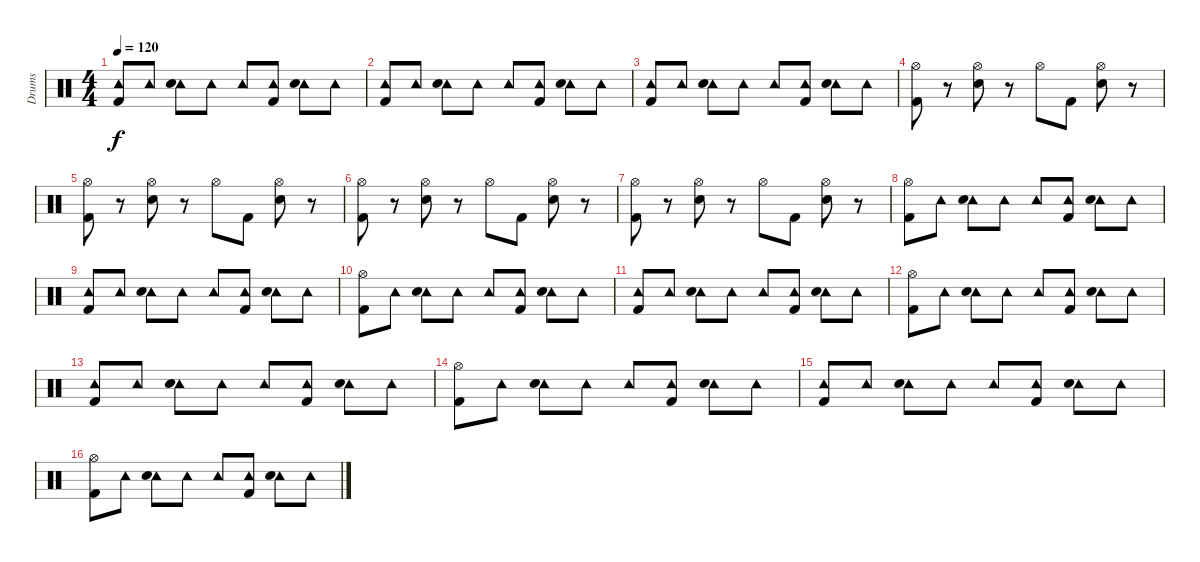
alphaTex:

\track ("Drums" "Drums") {instrument percussion}
\staff {score}
\articulation defaults
\ts (4 4)
\tempo 120
\clef neutral
\ks c
("Tambourine (hit)" "Kick (hit) 2").8{dy f} "Tambourine (hit)".8 ("Tambourine (hit)" "Hand Clap (hit)").8 "Tambourine (hit)".8 "Tambourine (hit)".8 ("Tambourine (hit)" "Kick (hit) 2").8 ("Tambourine (hit)" "Hand Clap (hit)").8 "Tambourine (hit)".8 |
("Tambourine (hit)" "Kick (hit) 2").8 "Tambourine (hit)".8 ("Tambourine (hit)" "Hand Clap (hit)").8 "Tambourine (hit)".8 "Tambourine (hit)".8 ("Tambourine (hit)" "Kick (hit) 2").8 ("Tambourine (hit)" "Hand Clap (hit)").8 "Tambourine (hit)".8 |
("Tambourine (hit)" "Kick (hit) 2").8 "Tambourine (hit)".8 ("Tambourine (hit)" "Hand Clap (hit)").8 "Tambourine (hit)".8 "Tambourine (hit)".8 ("Tambourine (hit)" "Kick (hit) 2").8 ("Tambourine (hit)" "Hand Clap (hit)").8 "Tambourine (hit)".8 |
("Hi-Hat (open)" "Kick (hit) 2").8 r.8 ("Hi-Hat (open)" "Hand Clap (hit)").8 r.8 "Hi-Hat (open)".8 "Kick (hit) 2".8 ("Hi-Hat (open)" "Hand Clap (hit)").8 r.8 |
("Hi-Hat (open)" "Kick (hit) 2").8 r.8 ("Hi-Hat (open)" "Hand Clap (hit)").8 r.8 "Hi-Hat (open)".8 "Kick (hit) 2".8 ("Hi-Hat (open)" "Hand Clap (hit)").8 r.8 |
("Hi-Hat (open)" "Kick (hit) 2").8 r.8 ("Hi-Hat (open)" "Hand Clap (hit)").8 r.8 "Hi-Hat (open)".8 "Kick (hit) 2".8 ("Hi-Hat (open)" "Hand Clap (hit)").8 r.8 |
("Hi-Hat (open)" "Kick (hit) 2").8 r.8 ("Hi-Hat (open)" "Hand Clap (hit)").8 r.8 "Hi-Hat (open)".8 "Kick (hit) 2".8 ("Hi-Hat (open)" "Hand Clap (hit)").8 r.8 |
("Hi-Hat (open)" "Kick (hit) 2").8 "Tambourine (hit)".8 ("Tambourine (hit)" "Hand Clap (hit)").8 "Tambourine (hit)".8 "Tambourine (hit)".8 ("Tambourine (hit)" "Kick (hit) 2").8 ("Tambourine (hit)" "Hand Clap (hit)").8 "Tambourine (hit)".8 |
("Tambourine (hit)" "Kick (hit) 2").8 "Tambourine (hit)".8 ("Tambourine (hit)" "Hand Clap (hit)").8 "Tambourine (hit)".8 "Tambourine (hit)".8 ("Tambourine (hit)" "Kick (hit) 2").8 ("Tambourine (hit)" "Hand Clap (hit)").8 "Tambourine (hit)".8 |
("Hi-Hat (open)" "Kick (hit) 2").8 "Tambourine (hit)".8 ("Tambourine (hit)" "Hand Clap (hit)").8 "Tambourine (hit)".8 "Tambourine (hit)".8 ("Tambourine (hit)" "Kick (hit) 2").8 ("Tambourine (hit)" "Hand Clap (hit)").8 "Tambourine (hit)".8 |
("Tambourine (hit)" "Kick (hit) 2").8 "Tambourine (hit)".8 ("Tambourine (hit)" "Hand Clap (hit)").8 "Tambourine (hit)".8 "Tambourine (hit)".8 ("Tambourine (hit)" "Kick (hit) 2").8 ("Tambourine (hit)" "Hand Clap (hit)").8 "Tambourine (hit)".8 |
("Hi-Hat (open)" "Kick (hit) 2").8 "Tambourine (hit)".8 ("Tambourine (hit)" "Hand Clap (hit)").8 "Tambourine (hit)".8 "Tambourine (hit)".8 ("Tambourine (hit)" "Kick (hit) 2").8 ("Tambourine (hit)" "Hand Clap (hit)").8 "Tambourine (hit)".8 |
("Tambourine (hit)" "Kick (hit) 2").8 "Tambourine (hit)".8 ("Tambourine (hit)" "Hand Clap (hit)").8 "Tambourine (hit)".8 "Tambourine (hit)".8 ("Tambourine (hit)" "Kick (hit) 2").8 ("Tambourine (hit)" "Hand Clap (hit)").8 "Tambourine (hit)".8 |
("Hi-Hat (open)" "Kick (hit) 2").8 "Tambourine (hit)".8 ("Tambourine (hit)" "Hand Clap (hit)").8 "Tambourine (hit)".8 "Tambourine (hit)".8 ("Tambourine (hit)" "Kick (hit) 2").8 ("Tambourine (hit)" "Hand Clap (hit)").8 "Tambourine (hit)".8 |
("Tambourine (hit)" "Kick (hit) 2").8 "Tambourine (hit)".8 ("Tambourine (hit)" "Hand Clap (hit)").8 "Tambourine (hit)".8 "Tambourine (hit)".8 ("Tambourine (hit)" "Kick (hit) 2").8 ("Tambourine (hit)" "Hand Clap (hit)").8 "Tambourine (hit)".8 |
("Hi-Hat (open)" "Kick (hit) 2").8 "Tambourine (hit)".8 ("Tambourine (hit)" "Hand Clap (hit)").8 "Tambourine (hit)".8 "Tambourine (hit)".8 ("Tambourine (hit)" "Kick (hit) 2").8 ("Tambourine (hit)" "Hand Clap (hit)").8 "Tambourine (hit)".8
